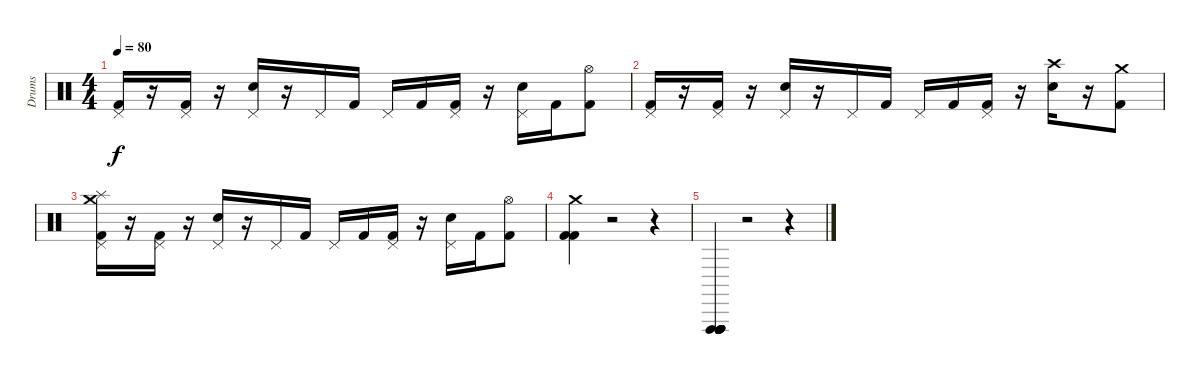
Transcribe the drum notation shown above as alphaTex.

\track ("Drums" "Drums") {instrument percussion}
\staff {score}
\articulation defaults
\ts (4 4)
\tempo 80
\clef neutral
\ks c
("Pedal Hi-Hat (hit)" "Kick (hit) 2").16{dy f} r.16 ("Pedal Hi-Hat (hit)" "Kick (hit) 2").16 r.16 ("Pedal Hi-Hat (hit)" "Snare (hit) 2").16 r.16 "Pedal Hi-Hat (hit)".16 "Kick (hit) 2".16 "Pedal Hi-Hat (hit)".16 "Kick (hit) 2".16 ("Pedal Hi-Hat (hit)" "Kick (hit) 2").16 r.16 ("Pedal Hi-Hat (hit)" "Snare (hit) 2").16 "Kick (hit) 2".16 ("Hi-Hat (open)" "Kick (hit) 2").8 |
("Pedal Hi-Hat (hit)" "Kick (hit) 2").16 r.16 ("Pedal Hi-Hat (hit)" "Kick (hit) 2").16 r.16 ("Pedal Hi-Hat (hit)" "Snare (hit) 2").16 r.16 "Pedal Hi-Hat (hit)".16 "Kick (hit) 2".16 "Pedal Hi-Hat (hit)".16 "Kick (hit) 2".16 ("Pedal Hi-Hat (hit)" "Kick (hit) 2").16 r.16 ("Crash high (hit)" "Snare (hit) 2").16 r.16 ("Crash medium (hit)" "Kick (hit) 2").8 |
("Pedal Hi-Hat (hit)" "Splash (hit)" "Crash medium (hit)" "Kick (hit) 2").16 r.16 ("Pedal Hi-Hat (hit)" "Kick (hit) 2").16 r.16 ("Pedal Hi-Hat (hit)" "Snare (hit) 2").16 r.16 "Pedal Hi-Hat (hit)".16 "Kick (hit) 2".16 "Pedal Hi-Hat (hit)".16 "Kick (hit) 2".16 ("Pedal Hi-Hat (hit)" "Kick (hit) 2").16 r.16 ("Pedal Hi-Hat (hit)" "Snare (hit) 2").16 "Kick (hit) 2".16 ("Hi-Hat (open)" "Kick (hit) 2").8 |
("Crash medium (hit)" "Kick (hit) 2" "Kick (hit) 2").4 r.2 r.4 |
("Vibraslap (hit)" "Vibraslap (hit)" "Vibraslap (hit)" "Vibraslap (hit)" "Vibraslap (hit)" "Vibraslap (hit)").4{volume 16} r.2 r.4
